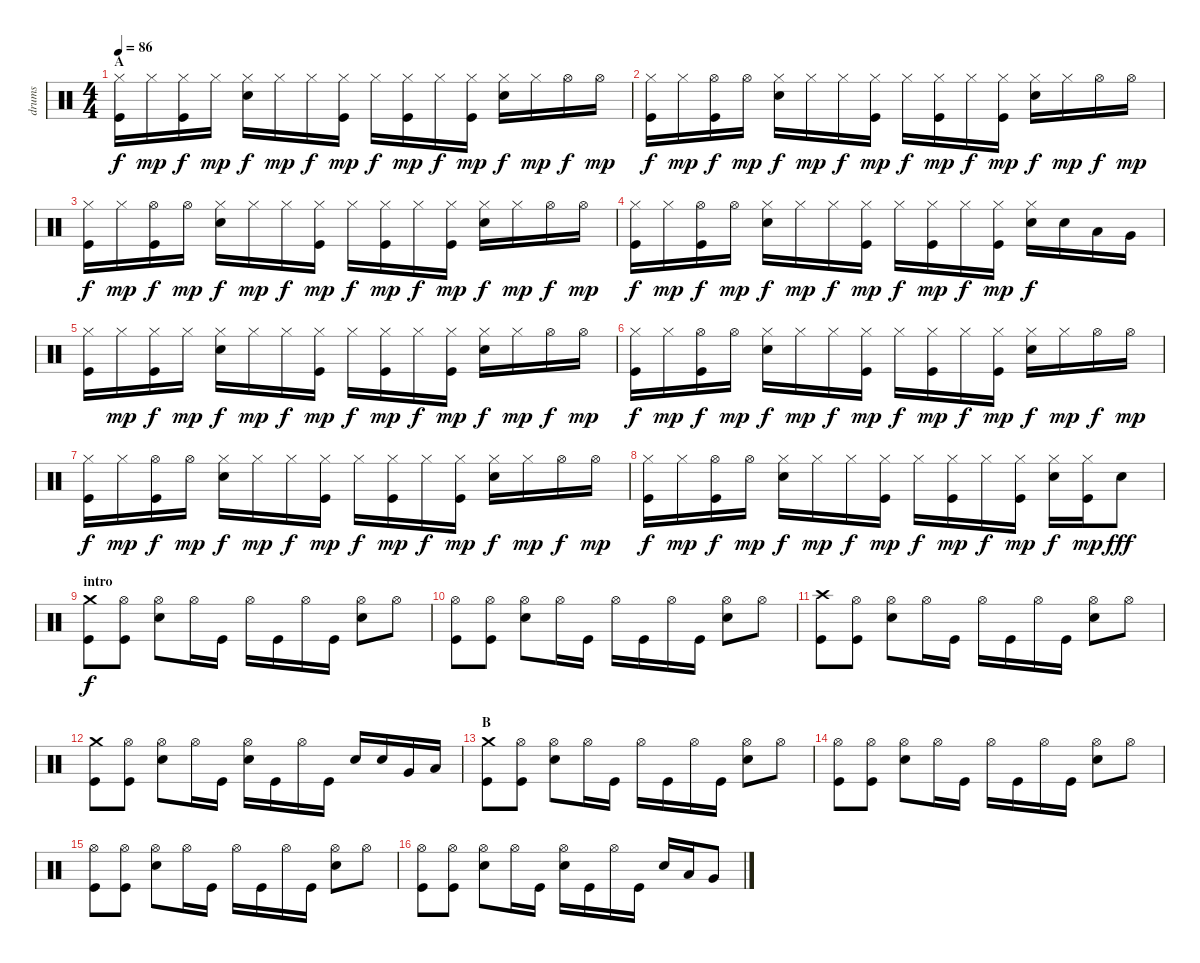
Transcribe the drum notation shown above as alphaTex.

\track ("drums" "drums") {instrument percussion}
\staff {score}
\articulation defaults
\ts (4 4)
\section ("" "A")
\tempo 86
\clef neutral
\ks c
("Hi-Hat (closed)" "Kick (hit)").16{dy f} "Hi-Hat (closed)".16{dy mp} ("Hi-Hat (closed)" "Kick (hit)").16{dy f} "Hi-Hat (closed)".16{dy mp} ("Hi-Hat (closed)" "Electric Snare (hit)").16{dy f} "Hi-Hat (closed)".16{dy mp} "Hi-Hat (closed)".16{dy f} ("Hi-Hat (closed)" "Kick (hit)").16{dy mp} "Hi-Hat (closed)".16{dy f} ("Hi-Hat (closed)" "Kick (hit)").16{dy mp} "Hi-Hat (closed)".16{dy f} ("Hi-Hat (closed)" "Kick (hit)").16{dy mp} ("Hi-Hat (closed)" "Electric Snare (hit)").16{dy f} "Hi-Hat (closed)".16{dy mp} "Hi-Hat (open)".16{dy f} "Hi-Hat (open)".16{dy mp} |
("Hi-Hat (closed)" "Kick (hit)").16{dy f} "Hi-Hat (closed)".16{dy mp} ("Hi-Hat (open)" "Kick (hit)").16{dy f} "Hi-Hat (open)".16{dy mp} ("Hi-Hat (closed)" "Electric Snare (hit)").16{dy f} "Hi-Hat (closed)".16{dy mp} "Hi-Hat (closed)".16{dy f} ("Hi-Hat (closed)" "Kick (hit)").16{dy mp} "Hi-Hat (closed)".16{dy f} ("Hi-Hat (closed)" "Kick (hit)").16{dy mp} "Hi-Hat (closed)".16{dy f} ("Hi-Hat (closed)" "Kick (hit)").16{dy mp} ("Hi-Hat (closed)" "Electric Snare (hit)").16{dy f} "Hi-Hat (closed)".16{dy mp} "Hi-Hat (open)".16{dy f} "Hi-Hat (open)".16{dy mp} |
("Hi-Hat (closed)" "Kick (hit)").16{dy f} "Hi-Hat (closed)".16{dy mp} ("Hi-Hat (open)" "Kick (hit)").16{dy f} "Hi-Hat (open)".16{dy mp} ("Hi-Hat (closed)" "Electric Snare (hit)").16{dy f} "Hi-Hat (closed)".16{dy mp} "Hi-Hat (closed)".16{dy f} ("Hi-Hat (closed)" "Kick (hit)").16{dy mp} "Hi-Hat (closed)".16{dy f} ("Hi-Hat (closed)" "Kick (hit)").16{dy mp} "Hi-Hat (closed)".16{dy f} ("Hi-Hat (closed)" "Kick (hit)").16{dy mp} ("Hi-Hat (closed)" "Electric Snare (hit)").16{dy f} "Hi-Hat (closed)".16{dy mp} "Hi-Hat (open)".16{dy f} "Hi-Hat (open)".16{dy mp} |
("Hi-Hat (closed)" "Kick (hit)").16{dy f} "Hi-Hat (closed)".16{dy mp} ("Hi-Hat (open)" "Kick (hit)").16{dy f} "Hi-Hat (open)".16{dy mp} ("Hi-Hat (closed)" "Electric Snare (hit)").16{dy f} "Hi-Hat (closed)".16{dy mp} "Hi-Hat (closed)".16{dy f} ("Hi-Hat (closed)" "Kick (hit)").16{dy mp} "Hi-Hat (closed)".16{dy f} ("Hi-Hat (closed)" "Kick (hit)").16{dy mp} "Hi-Hat (closed)".16{dy f} ("Hi-Hat (closed)" "Kick (hit)").16{dy mp} ("Hi-Hat (closed)" "Electric Snare (hit)").16{dy f} "Electric Snare (hit)".16 "Low Tom (hit)".16 "Very Low Tom (hit)".16 |
("Hi-Hat (closed)" "Kick (hit)").16 "Hi-Hat (closed)".16{dy mp} ("Hi-Hat (closed)" "Kick (hit)").16{dy f} "Hi-Hat (closed)".16{dy mp} ("Hi-Hat (closed)" "Electric Snare (hit)").16{dy f} "Hi-Hat (closed)".16{dy mp} "Hi-Hat (closed)".16{dy f} ("Hi-Hat (closed)" "Kick (hit)").16{dy mp} "Hi-Hat (closed)".16{dy f} ("Hi-Hat (closed)" "Kick (hit)").16{dy mp} "Hi-Hat (closed)".16{dy f} ("Hi-Hat (closed)" "Kick (hit)").16{dy mp} ("Hi-Hat (closed)" "Electric Snare (hit)").16{dy f} "Hi-Hat (closed)".16{dy mp} "Hi-Hat (open)".16{dy f} "Hi-Hat (open)".16{dy mp} |
("Hi-Hat (closed)" "Kick (hit)").16{dy f} "Hi-Hat (closed)".16{dy mp} ("Hi-Hat (open)" "Kick (hit)").16{dy f} "Hi-Hat (open)".16{dy mp} ("Hi-Hat (closed)" "Electric Snare (hit)").16{dy f} "Hi-Hat (closed)".16{dy mp} "Hi-Hat (closed)".16{dy f} ("Hi-Hat (closed)" "Kick (hit)").16{dy mp} "Hi-Hat (closed)".16{dy f} ("Hi-Hat (closed)" "Kick (hit)").16{dy mp} "Hi-Hat (closed)".16{dy f} ("Hi-Hat (closed)" "Kick (hit)").16{dy mp} ("Hi-Hat (closed)" "Electric Snare (hit)").16{dy f} "Hi-Hat (closed)".16{dy mp} "Hi-Hat (open)".16{dy f} "Hi-Hat (open)".16{dy mp} |
("Hi-Hat (closed)" "Kick (hit)").16{dy f} "Hi-Hat (closed)".16{dy mp} ("Hi-Hat (open)" "Kick (hit)").16{dy f} "Hi-Hat (open)".16{dy mp} ("Hi-Hat (closed)" "Electric Snare (hit)").16{dy f} "Hi-Hat (closed)".16{dy mp} "Hi-Hat (closed)".16{dy f} ("Hi-Hat (closed)" "Kick (hit)").16{dy mp} "Hi-Hat (closed)".16{dy f} ("Hi-Hat (closed)" "Kick (hit)").16{dy mp} "Hi-Hat (closed)".16{dy f} ("Hi-Hat (closed)" "Kick (hit)").16{dy mp} ("Hi-Hat (closed)" "Electric Snare (hit)").16{dy f} "Hi-Hat (closed)".16{dy mp} "Hi-Hat (open)".16{dy f} "Hi-Hat (open)".16{dy mp} |
("Hi-Hat (closed)" "Kick (hit)").16{dy f} "Hi-Hat (closed)".16{dy mp} ("Hi-Hat (open)" "Kick (hit)").16{dy f} "Hi-Hat (open)".16{dy mp} ("Hi-Hat (closed)" "Electric Snare (hit)").16{dy f} "Hi-Hat (closed)".16{dy mp} "Hi-Hat (closed)".16{dy f} ("Hi-Hat (closed)" "Kick (hit)").16{dy mp} "Hi-Hat (closed)".16{dy f} ("Hi-Hat (closed)" "Kick (hit)").16{dy mp} "Hi-Hat (closed)".16{dy f} ("Hi-Hat (closed)" "Kick (hit)").16{dy mp} ("Hi-Hat (closed)" "Electric Snare (hit)").16{dy f} ("Hi-Hat (closed)" "Kick (hit)").16{dy mp} "Electric Snare (hit)".8{dy fff} |
\section ("" "intro")
("Crash medium (hit)" "Kick (hit)").8{dy f} ("Hi-Hat (open)" "Kick (hit)").8 ("Hi-Hat (open)" "Electric Snare (hit)").8 "Hi-Hat (open)".16 "Kick (hit)".16 "Hi-Hat (open)".16 "Kick (hit)".16 "Hi-Hat (open)".16 "Kick (hit)".16 ("Hi-Hat (open)" "Electric Snare (hit)").8 "Hi-Hat (open)".8 |
("Hi-Hat (open)" "Kick (hit)").8 ("Hi-Hat (open)" "Kick (hit)").8 ("Hi-Hat (open)" "Electric Snare (hit)").8 "Hi-Hat (open)".16 "Kick (hit)".16 "Hi-Hat (open)".16 "Kick (hit)".16 "Hi-Hat (open)".16 "Kick (hit)".16 ("Hi-Hat (open)" "Electric Snare (hit)").8 "Hi-Hat (open)".8 |
("Crash high (hit)" "Kick (hit)").8 ("Hi-Hat (open)" "Kick (hit)").8 ("Hi-Hat (open)" "Electric Snare (hit)").8 "Hi-Hat (open)".16 "Kick (hit)".16 "Hi-Hat (open)".16 "Kick (hit)".16 "Hi-Hat (open)".16 "Kick (hit)".16 ("Hi-Hat (open)" "Electric Snare (hit)").8 "Hi-Hat (open)".8 |
("Crash medium (hit)" "Kick (hit)").8 ("Hi-Hat (open)" "Kick (hit)").8 ("Hi-Hat (open)" "Electric Snare (hit)").8 "Hi-Hat (open)".16 "Kick (hit)".16 ("Hi-Hat (open)" "Electric Snare (hit)").16 "Kick (hit)".16 "Hi-Hat (open)".16 "Kick (hit)".16 "Electric Snare (hit)".16 "Electric Snare (hit)".16 "Very Low Tom (hit)".16 "Low Floor Tom (hit)".16 |
\section ("" "B")
("Crash medium (hit)" "Kick (hit)").8 ("Hi-Hat (open)" "Kick (hit)").8 ("Hi-Hat (open)" "Electric Snare (hit)").8 "Hi-Hat (open)".16 "Kick (hit)".16 "Hi-Hat (open)".16 "Kick (hit)".16 "Hi-Hat (open)".16 "Kick (hit)".16 ("Hi-Hat (open)" "Electric Snare (hit)").8 "Hi-Hat (open)".8 |
("Hi-Hat (open)" "Kick (hit)").8 ("Hi-Hat (open)" "Kick (hit)").8 ("Hi-Hat (open)" "Electric Snare (hit)").8 "Hi-Hat (open)".16 "Kick (hit)".16 "Hi-Hat (open)".16 "Kick (hit)".16 "Hi-Hat (open)".16 "Kick (hit)".16 ("Hi-Hat (open)" "Electric Snare (hit)").8 "Hi-Hat (open)".8 |
("Hi-Hat (open)" "Kick (hit)").8 ("Hi-Hat (open)" "Kick (hit)").8 ("Hi-Hat (open)" "Electric Snare (hit)").8 "Hi-Hat (open)".16 "Kick (hit)".16 "Hi-Hat (open)".16 "Kick (hit)".16 "Hi-Hat (open)".16 "Kick (hit)".16 ("Hi-Hat (open)" "Electric Snare (hit)").8 "Hi-Hat (open)".8 |
("Hi-Hat (open)" "Kick (hit)").8 ("Hi-Hat (open)" "Kick (hit)").8 ("Hi-Hat (open)" "Electric Snare (hit)").8 "Hi-Hat (open)".16 "Kick (hit)".16 ("Hi-Hat (open)" "Electric Snare (hit)").16 "Kick (hit)".16 "Hi-Hat (open)".16 "Kick (hit)".16 "Electric Snare (hit)".16 "Low Tom (hit)".16 "Very Low Tom (hit)".8
